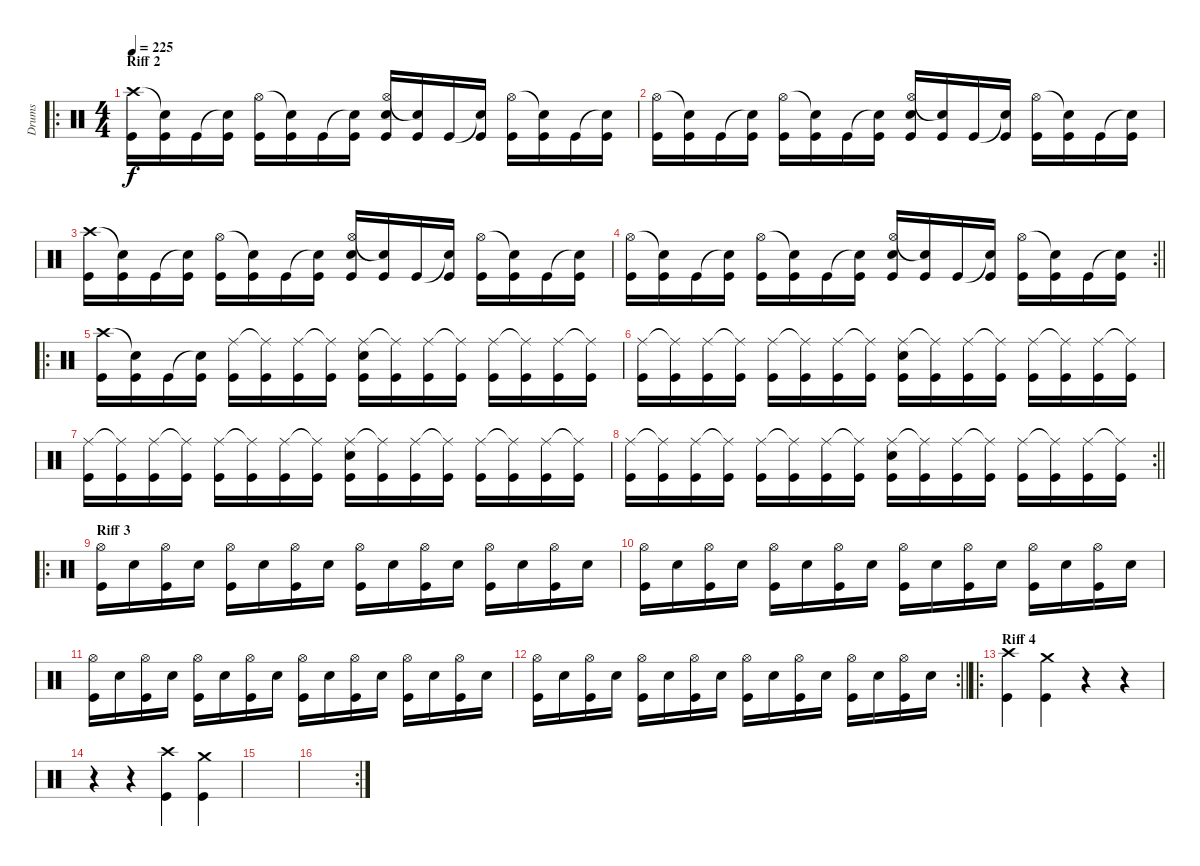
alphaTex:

\track ("Drums" "Drums") {instrument percussion}
\staff {score}
\articulation defaults
\ro
\ts (4 4)
\section ("" "Riff 2")
\tempo 225
\clef neutral
\ks c
("Crash high (hit)" "Kick (hit)").16{dy f} ("Snare (hit)"{t} "Kick (hit)").16 "Kick (hit)".16 ("Snare (hit)"{t} "Kick (hit)").16 ("Hi-Hat (open)" "Kick (hit)").16 ("Snare (hit)"{t} "Kick (hit)").16 "Kick (hit)".16 ("Snare (hit)"{t} "Kick (hit)").16 ("Hi-Hat (open)" "Electric Snare (hit)" "Kick (hit)").16 ("Snare (hit)"{t} "Kick (hit)").16 "Kick (hit)".16 ("Snare (hit)"{t} "Kick (hit)").16 ("Hi-Hat (open)" "Kick (hit)").16 ("Snare (hit)"{t} "Kick (hit)").16 "Kick (hit)".16 ("Snare (hit)"{t} "Kick (hit)").16 |
("Hi-Hat (open)" "Kick (hit)").16 ("Snare (hit)"{t} "Kick (hit)").16 "Kick (hit)".16 ("Snare (hit)"{t} "Kick (hit)").16 ("Hi-Hat (open)" "Kick (hit)").16 ("Snare (hit)"{t} "Kick (hit)").16 "Kick (hit)".16 ("Snare (hit)"{t} "Kick (hit)").16 ("Hi-Hat (open)" "Electric Snare (hit)" "Kick (hit)").16 ("Snare (hit)"{t} "Kick (hit)").16 "Kick (hit)".16 ("Snare (hit)"{t} "Kick (hit)").16 ("Hi-Hat (open)" "Kick (hit)").16 ("Snare (hit)"{t} "Kick (hit)").16 "Kick (hit)".16 ("Snare (hit)"{t} "Kick (hit)").16 |
("Crash high (hit)" "Kick (hit)").16 ("Snare (hit)"{t} "Kick (hit)").16 "Kick (hit)".16 ("Snare (hit)"{t} "Kick (hit)").16 ("Hi-Hat (open)" "Kick (hit)").16 ("Snare (hit)"{t} "Kick (hit)").16 "Kick (hit)".16 ("Snare (hit)"{t} "Kick (hit)").16 ("Hi-Hat (open)" "Electric Snare (hit)" "Kick (hit)").16 ("Snare (hit)"{t} "Kick (hit)").16 "Kick (hit)".16 ("Snare (hit)"{t} "Kick (hit)").16 ("Hi-Hat (open)" "Kick (hit)").16 ("Snare (hit)"{t} "Kick (hit)").16 "Kick (hit)".16 ("Snare (hit)"{t} "Kick (hit)").16 |
\rc 2
\barLineRight lightlight
("Hi-Hat (open)" "Kick (hit)").16 ("Snare (hit)"{t} "Kick (hit)").16 "Kick (hit)".16 ("Snare (hit)"{t} "Kick (hit)").16 ("Hi-Hat (open)" "Kick (hit)").16 ("Snare (hit)"{t} "Kick (hit)").16 "Kick (hit)".16 ("Snare (hit)"{t} "Kick (hit)").16 ("Hi-Hat (open)" "Electric Snare (hit)" "Kick (hit)").16 ("Snare (hit)"{t} "Kick (hit)").16 "Kick (hit)".16 ("Snare (hit)"{t} "Kick (hit)").16 ("Hi-Hat (open)" "Kick (hit)").16 ("Snare (hit)"{t} "Kick (hit)").16 "Kick (hit)".16 ("Snare (hit)"{t} "Kick (hit)").16 |
\ro
("Crash high (hit)" "Kick (hit)").16 ("Snare (hit)"{t} "Kick (hit)").16 "Kick (hit)".16 ("Snare (hit)"{t} "Kick (hit)").16 ("Ride (middle)" "Kick (hit)").16 ("Ride (middle)"{t} "Kick (hit)").16 ("Ride (middle)" "Kick (hit)").16 ("Ride (middle)"{t} "Kick (hit)").16 ("Ride (middle)" "Electric Snare (hit)" "Kick (hit)").16 ("Ride (middle)"{t} "Kick (hit)").16 ("Ride (middle)" "Kick (hit)").16 ("Ride (middle)"{t} "Kick (hit)").16 ("Ride (middle)" "Kick (hit)").16 ("Ride (middle)"{t} "Kick (hit)").16 ("Ride (middle)" "Kick (hit)").16 ("Ride (middle)"{t} "Kick (hit)").16 |
("Ride (middle)" "Kick (hit)").16 ("Ride (middle)"{t} "Kick (hit)").16 ("Ride (middle)" "Kick (hit)").16 ("Ride (middle)"{t} "Kick (hit)").16 ("Ride (middle)" "Kick (hit)").16 ("Ride (middle)"{t} "Kick (hit)").16 ("Ride (middle)" "Kick (hit)").16 ("Ride (middle)"{t} "Kick (hit)").16 ("Ride (middle)" "Electric Snare (hit)" "Kick (hit)").16 ("Ride (middle)"{t} "Kick (hit)").16 ("Ride (middle)" "Kick (hit)").16 ("Ride (middle)"{t} "Kick (hit)").16 ("Ride (middle)" "Kick (hit)").16 ("Ride (middle)"{t} "Kick (hit)").16 ("Ride (middle)" "Kick (hit)").16 ("Ride (middle)"{t} "Kick (hit)").16 |
("Ride (middle)" "Kick (hit)").16 ("Ride (middle)"{t} "Kick (hit)").16 ("Ride (middle)" "Kick (hit)").16 ("Ride (middle)"{t} "Kick (hit)").16 ("Ride (middle)" "Kick (hit)").16 ("Ride (middle)"{t} "Kick (hit)").16 ("Ride (middle)" "Kick (hit)").16 ("Ride (middle)"{t} "Kick (hit)").16 ("Ride (middle)" "Electric Snare (hit)" "Kick (hit)").16 ("Ride (middle)"{t} "Kick (hit)").16 ("Ride (middle)" "Kick (hit)").16 ("Ride (middle)"{t} "Kick (hit)").16 ("Ride (middle)" "Kick (hit)").16 ("Ride (middle)"{t} "Kick (hit)").16 ("Ride (middle)" "Kick (hit)").16 ("Ride (middle)"{t} "Kick (hit)").16 |
\rc 2
\barLineRight lightlight
("Ride (middle)" "Kick (hit)").16 ("Ride (middle)"{t} "Kick (hit)").16 ("Ride (middle)" "Kick (hit)").16 ("Ride (middle)"{t} "Kick (hit)").16 ("Ride (middle)" "Kick (hit)").16 ("Ride (middle)"{t} "Kick (hit)").16 ("Ride (middle)" "Kick (hit)").16 ("Ride (middle)"{t} "Kick (hit)").16 ("Ride (middle)" "Electric Snare (hit)" "Kick (hit)").16 ("Ride (middle)"{t} "Kick (hit)").16 ("Ride (middle)" "Kick (hit)").16 ("Ride (middle)"{t} "Kick (hit)").16 ("Ride (middle)" "Kick (hit)").16 ("Ride (middle)"{t} "Kick (hit)").16 ("Ride (middle)" "Kick (hit)").16 ("Ride (middle)"{t} "Kick (hit)").16 |
\ro
\section ("" "Riff 3")
("Hi-Hat (open)" "Kick (hit)").16 "Electric Snare (hit)".16 ("Hi-Hat (open)" "Kick (hit)").16 "Electric Snare (hit)".16 ("Hi-Hat (open)" "Kick (hit)").16 "Electric Snare (hit)".16 ("Hi-Hat (open)" "Kick (hit)").16 "Electric Snare (hit)".16 ("Hi-Hat (open)" "Kick (hit)").16 "Electric Snare (hit)".16 ("Hi-Hat (open)" "Kick (hit)").16 "Electric Snare (hit)".16 ("Hi-Hat (open)" "Kick (hit)").16 "Electric Snare (hit)".16 ("Hi-Hat (open)" "Kick (hit)").16 "Electric Snare (hit)".16 |
("Hi-Hat (open)" "Kick (hit)").16 "Electric Snare (hit)".16 ("Hi-Hat (open)" "Kick (hit)").16 "Electric Snare (hit)".16 ("Hi-Hat (open)" "Kick (hit)").16 "Electric Snare (hit)".16 ("Hi-Hat (open)" "Kick (hit)").16 "Electric Snare (hit)".16 ("Hi-Hat (open)" "Kick (hit)").16 "Electric Snare (hit)".16 ("Hi-Hat (open)" "Kick (hit)").16 "Electric Snare (hit)".16 ("Hi-Hat (open)" "Kick (hit)").16 "Electric Snare (hit)".16 ("Hi-Hat (open)" "Kick (hit)").16 "Electric Snare (hit)".16 |
("Hi-Hat (open)" "Kick (hit)").16 "Electric Snare (hit)".16 ("Hi-Hat (open)" "Kick (hit)").16 "Electric Snare (hit)".16 ("Hi-Hat (open)" "Kick (hit)").16 "Electric Snare (hit)".16 ("Hi-Hat (open)" "Kick (hit)").16 "Electric Snare (hit)".16 ("Hi-Hat (open)" "Kick (hit)").16 "Electric Snare (hit)".16 ("Hi-Hat (open)" "Kick (hit)").16 "Electric Snare (hit)".16 ("Hi-Hat (open)" "Kick (hit)").16 "Electric Snare (hit)".16 ("Hi-Hat (open)" "Kick (hit)").16 "Electric Snare (hit)".16 |
\rc 2
\barLineRight lightlight
("Hi-Hat (open)" "Kick (hit)").16 "Electric Snare (hit)".16 ("Hi-Hat (open)" "Kick (hit)").16 "Electric Snare (hit)".16 ("Hi-Hat (open)" "Kick (hit)").16 "Electric Snare (hit)".16 ("Hi-Hat (open)" "Kick (hit)").16 "Electric Snare (hit)".16 ("Hi-Hat (open)" "Kick (hit)").16 "Electric Snare (hit)".16 ("Hi-Hat (open)" "Kick (hit)").16 "Electric Snare (hit)".16 ("Hi-Hat (open)" "Kick (hit)").16 "Electric Snare (hit)".16 ("Hi-Hat (open)" "Kick (hit)").16 "Electric Snare (hit)".16 |
\ro
\section ("" "Riff 4")
("Crash high (hit)" "Kick (hit)").4 ("Crash medium (hit)" "Kick (hit)").4 r.4 r.4 |
r.4 r.4 ("Crash high (hit)" "Kick (hit)").4 ("Crash medium (hit)" "Kick (hit)").4 |
|
\rc 2
